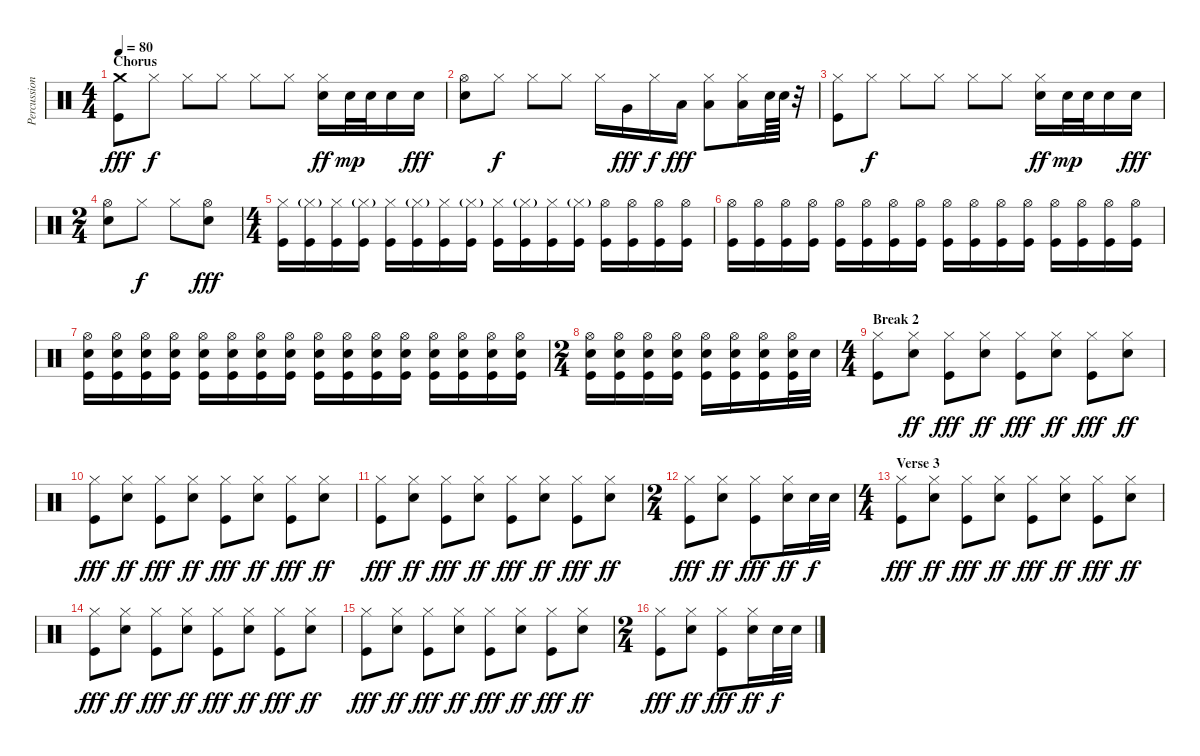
\track ("Percussion" "Percussion") {instrument percussion}
\staff {score}
\articulation defaults
\ts (4 4)
\section ("" "Chorus")
\tempo 80
\clef neutral
\ks c
("Crash medium (hit)" "Kick (hit)").8{dy fff} "Hi-Hat (closed)".8{dy f} "Hi-Hat (closed)".8 "Hi-Hat (closed)".8 "Hi-Hat (closed)".8 "Hi-Hat (closed)".8 ("Hi-Hat (closed)" "Snare (hit) 2").16{dy ff} "Snare (hit) 2".32{dy mp} "Snare (hit) 2".32 "Snare (hit) 2".16 "Snare (hit) 2".16{dy fff} |
("Hi-Hat (open)" "Snare (hit) 2").8 "Hi-Hat (closed)".8{dy f} "Hi-Hat (closed)".8 "Hi-Hat (closed)".8 "Hi-Hat (closed)".16 "Very Low Tom (hit)".16{dy fff} "Hi-Hat (closed)".16{dy f} "Low Tom (hit)".16{dy fff} ("Hi-Hat (closed)" "Low Tom (hit)").8 ("Hi-Hat (closed)" "Low Tom (hit)").16 "Snare (hit) 2".64 "Snare (hit) 2".64 r.32 |
("Hi-Hat (closed)" "Kick (hit)").8 "Hi-Hat (closed)".8{dy f} "Hi-Hat (closed)".8 "Hi-Hat (closed)".8 "Hi-Hat (closed)".8 "Hi-Hat (closed)".8 ("Hi-Hat (closed)" "Snare (hit) 2").16{dy ff} "Snare (hit) 2".32{dy mp} "Snare (hit) 2".32 "Snare (hit) 2".16 "Snare (hit) 2".16{dy fff} |
\ts (2 4)
("Hi-Hat (open)" "Snare (hit) 2").8 "Hi-Hat (closed)".8{dy f} "Hi-Hat (closed)".8 ("Hi-Hat (open)" "Snare (hit) 2").8{dy fff} |
\ts (4 4)
("Hi-Hat (closed)" "Kick (hit)").16 ("Hi-Hat (closed)"{g} "Kick (hit)").16 ("Hi-Hat (closed)" "Kick (hit)").16 ("Hi-Hat (closed)"{g} "Kick (hit)").16 ("Hi-Hat (closed)" "Kick (hit)").16 ("Hi-Hat (closed)"{g} "Kick (hit)").16 ("Hi-Hat (closed)" "Kick (hit)").16 ("Hi-Hat (closed)"{g} "Kick (hit)").16 ("Hi-Hat (closed)" "Kick (hit)").16 ("Hi-Hat (closed)"{g} "Kick (hit)").16 ("Hi-Hat (closed)" "Kick (hit)").16 ("Hi-Hat (closed)"{g} "Kick (hit)").16 ("Hi-Hat (open)" "Kick (hit)").16 ("Hi-Hat (open)" "Kick (hit)").16 ("Hi-Hat (open)" "Kick (hit)").16 ("Hi-Hat (open)" "Kick (hit)").16 |
("Hi-Hat (open)" "Kick (hit)").16 ("Hi-Hat (open)" "Kick (hit)").16 ("Hi-Hat (open)" "Kick (hit)").16 ("Hi-Hat (open)" "Kick (hit)").16 ("Hi-Hat (open)" "Kick (hit)").16 ("Hi-Hat (open)" "Kick (hit)").16 ("Hi-Hat (open)" "Kick (hit)").16 ("Hi-Hat (open)" "Kick (hit)").16 ("Hi-Hat (open)" "Kick (hit)").16 ("Hi-Hat (open)" "Kick (hit)").16 ("Hi-Hat (open)" "Kick (hit)").16 ("Hi-Hat (open)" "Kick (hit)").16 ("Hi-Hat (open)" "Kick (hit)").16 ("Hi-Hat (open)" "Kick (hit)").16 ("Hi-Hat (open)" "Kick (hit)").16 ("Hi-Hat (open)" "Kick (hit)").16 |
("Hi-Hat (open)" "Snare (hit) 2" "Kick (hit)").16 ("Hi-Hat (open)" "Snare (hit) 2" "Kick (hit)").16 ("Hi-Hat (open)" "Snare (hit) 2" "Kick (hit)").16 ("Hi-Hat (open)" "Snare (hit) 2" "Kick (hit)").16 ("Hi-Hat (open)" "Snare (hit) 2" "Kick (hit)").16 ("Hi-Hat (open)" "Snare (hit) 2" "Kick (hit)").16 ("Hi-Hat (open)" "Snare (hit) 2" "Kick (hit)").16 ("Hi-Hat (open)" "Snare (hit) 2" "Kick (hit)").16 ("Hi-Hat (open)" "Snare (hit) 2" "Kick (hit)").16 ("Hi-Hat (open)" "Snare (hit) 2" "Kick (hit)").16 ("Hi-Hat (open)" "Snare (hit) 2" "Kick (hit)").16 ("Hi-Hat (open)" "Snare (hit) 2" "Kick (hit)").16 ("Hi-Hat (open)" "Snare (hit) 2" "Kick (hit)").16 ("Hi-Hat (open)" "Snare (hit) 2" "Kick (hit)").16 ("Hi-Hat (open)" "Snare (hit) 2" "Kick (hit)").16 ("Hi-Hat (open)" "Snare (hit) 2" "Kick (hit)").16 |
\ts (2 4)
("Hi-Hat (open)" "Snare (hit) 2" "Kick (hit)").16 ("Hi-Hat (open)" "Snare (hit) 2" "Kick (hit)").16 ("Hi-Hat (open)" "Snare (hit) 2" "Kick (hit)").16 ("Hi-Hat (open)" "Snare (hit) 2" "Kick (hit)").16 ("Hi-Hat (open)" "Snare (hit) 2" "Kick (hit)").16 ("Hi-Hat (open)" "Snare (hit) 2" "Kick (hit)").16 ("Hi-Hat (open)" "Snare (hit) 2" "Kick (hit)").16 ("Hi-Hat (open)" "Snare (hit) 2" "Kick (hit)").32 "Snare (hit) 2".32 |
\ts (4 4)
\section ("" "Break 2")
("Hi-Hat (closed)" "Kick (hit)").8 ("Hi-Hat (closed)" "Snare (hit) 2").8{dy ff} ("Hi-Hat (closed)" "Kick (hit)").8{dy fff} ("Hi-Hat (closed)" "Snare (hit) 2").8{dy ff} ("Hi-Hat (closed)" "Kick (hit)").8{dy fff} ("Hi-Hat (closed)" "Snare (hit) 2").8{dy ff} ("Hi-Hat (closed)" "Kick (hit)").8{dy fff} ("Hi-Hat (closed)" "Snare (hit) 2").8{dy ff} |
("Hi-Hat (closed)" "Kick (hit)").8{dy fff} ("Hi-Hat (closed)" "Snare (hit) 2").8{dy ff} ("Hi-Hat (closed)" "Kick (hit)").8{dy fff} ("Hi-Hat (closed)" "Snare (hit) 2").8{dy ff} ("Hi-Hat (closed)" "Kick (hit)").8{dy fff} ("Hi-Hat (closed)" "Snare (hit) 2").8{dy ff} ("Hi-Hat (closed)" "Kick (hit)").8{dy fff} ("Hi-Hat (closed)" "Snare (hit) 2").8{dy ff} |
("Hi-Hat (closed)" "Kick (hit)").8{dy fff} ("Hi-Hat (closed)" "Snare (hit) 2").8{dy ff} ("Hi-Hat (closed)" "Kick (hit)").8{dy fff} ("Hi-Hat (closed)" "Snare (hit) 2").8{dy ff} ("Hi-Hat (closed)" "Kick (hit)").8{dy fff} ("Hi-Hat (closed)" "Snare (hit) 2").8{dy ff} ("Hi-Hat (closed)" "Kick (hit)").8{dy fff} ("Hi-Hat (closed)" "Snare (hit) 2").8{dy ff} |
\ts (2 4)
("Hi-Hat (closed)" "Kick (hit)").8{dy fff} ("Hi-Hat (closed)" "Snare (hit) 2").8{dy ff} ("Hi-Hat (closed)" "Kick (hit)").8{dy fff} ("Hi-Hat (closed)" "Snare (hit) 2").16{dy ff} "Snare (hit) 2".32{dy f} "Snare (hit) 2".32 |
\ts (4 4)
\section ("" "Verse 3")
("Hi-Hat (closed)" "Kick (hit)").8{dy fff} ("Hi-Hat (closed)" "Snare (hit) 2").8{dy ff} ("Hi-Hat (closed)" "Kick (hit)").8{dy fff} ("Hi-Hat (closed)" "Snare (hit) 2").8{dy ff} ("Hi-Hat (closed)" "Kick (hit)").8{dy fff} ("Hi-Hat (closed)" "Snare (hit) 2").8{dy ff} ("Hi-Hat (closed)" "Kick (hit)").8{dy fff} ("Hi-Hat (closed)" "Snare (hit) 2").8{dy ff} |
("Hi-Hat (closed)" "Kick (hit)").8{dy fff} ("Hi-Hat (closed)" "Snare (hit) 2").8{dy ff} ("Hi-Hat (closed)" "Kick (hit)").8{dy fff} ("Hi-Hat (closed)" "Snare (hit) 2").8{dy ff} ("Hi-Hat (closed)" "Kick (hit)").8{dy fff} ("Hi-Hat (closed)" "Snare (hit) 2").8{dy ff} ("Hi-Hat (closed)" "Kick (hit)").8{dy fff} ("Hi-Hat (closed)" "Snare (hit) 2").8{dy ff} |
("Hi-Hat (closed)" "Kick (hit)").8{dy fff} ("Hi-Hat (closed)" "Snare (hit) 2").8{dy ff} ("Hi-Hat (closed)" "Kick (hit)").8{dy fff} ("Hi-Hat (closed)" "Snare (hit) 2").8{dy ff} ("Hi-Hat (closed)" "Kick (hit)").8{dy fff} ("Hi-Hat (closed)" "Snare (hit) 2").8{dy ff} ("Hi-Hat (closed)" "Kick (hit)").8{dy fff} ("Hi-Hat (closed)" "Snare (hit) 2").8{dy ff} |
\ts (2 4)
("Hi-Hat (closed)" "Kick (hit)").8{dy fff} ("Hi-Hat (closed)" "Snare (hit) 2").8{dy ff} ("Hi-Hat (closed)" "Kick (hit)").8{dy fff} ("Hi-Hat (closed)" "Snare (hit) 2").16{dy ff} "Snare (hit) 2".32{dy f} "Snare (hit) 2".32
